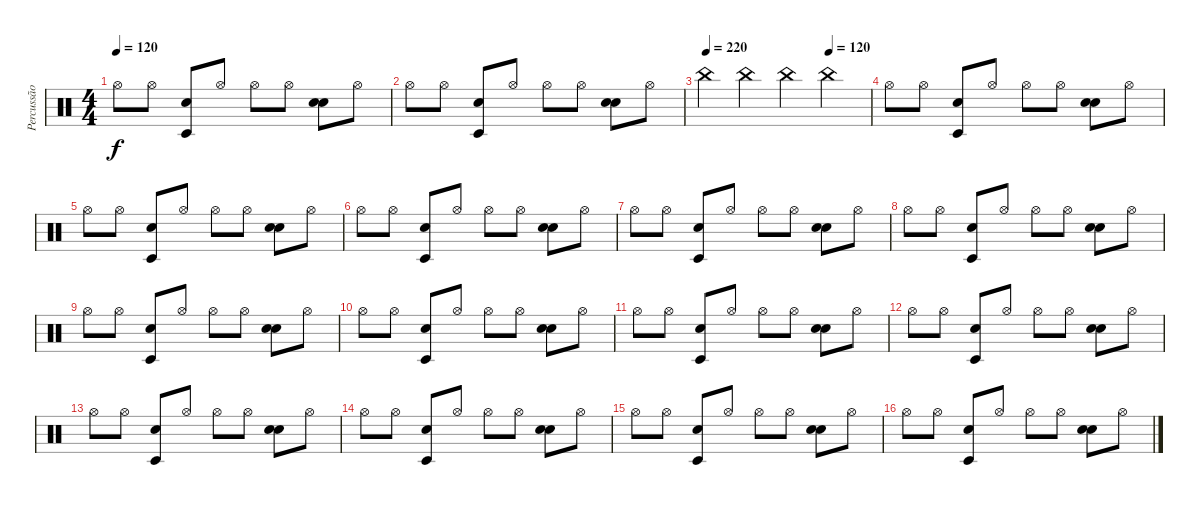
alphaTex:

\track ("Percussão" "Percussão") {instrument percussion}
\staff {score}
\articulation defaults
\ts (4 4)
\tempo 120
\clef neutral
\ks c "Hi-Hat (open)".8{dy f} "Hi-Hat (open)".8
("Timbale low (hit)" "Snare (hit) 2").8 "Hi-Hat (open)".8 "Hi-Hat (open)".8 "Hi-Hat (open)".8 ("Hand Clap (hit)" "Snare (hit) 2").8 "Hi-Hat (open)".8 |
"Hi-Hat (open)".8 "Hi-Hat (open)".8 ("Timbale low (hit)" "Snare (hit) 2").8 "Hi-Hat (open)".8 "Hi-Hat (open)".8 "Hi-Hat (open)".8 ("Hand Clap (hit)" "Snare (hit) 2").8 "Hi-Hat (open)".8 |
\tempo 220
\tempo (120 0.75)
"China (hit)".4 "China (hit)".4 "China (hit)".4 "China (hit)".4 |
"Hi-Hat (open)".8 "Hi-Hat (open)".8 ("Timbale low (hit)" "Snare (hit) 2").8 "Hi-Hat (open)".8 "Hi-Hat (open)".8 "Hi-Hat (open)".8 ("Hand Clap (hit)" "Snare (hit) 2").8 "Hi-Hat (open)".8 |
"Hi-Hat (open)".8 "Hi-Hat (open)".8 ("Timbale low (hit)" "Snare (hit) 2").8 "Hi-Hat (open)".8 "Hi-Hat (open)".8 "Hi-Hat (open)".8 ("Hand Clap (hit)" "Snare (hit) 2").8 "Hi-Hat (open)".8 |
"Hi-Hat (open)".8 "Hi-Hat (open)".8 ("Timbale low (hit)" "Snare (hit) 2").8 "Hi-Hat (open)".8 "Hi-Hat (open)".8 "Hi-Hat (open)".8 ("Hand Clap (hit)" "Snare (hit) 2").8 "Hi-Hat (open)".8 |
"Hi-Hat (open)".8 "Hi-Hat (open)".8 ("Timbale low (hit)" "Snare (hit) 2").8 "Hi-Hat (open)".8 "Hi-Hat (open)".8 "Hi-Hat (open)".8 ("Hand Clap (hit)" "Snare (hit) 2").8 "Hi-Hat (open)".8 |
"Hi-Hat (open)".8 "Hi-Hat (open)".8 ("Timbale low (hit)" "Snare (hit) 2").8 "Hi-Hat (open)".8 "Hi-Hat (open)".8 "Hi-Hat (open)".8 ("Hand Clap (hit)" "Snare (hit) 2").8 "Hi-Hat (open)".8 |
"Hi-Hat (open)".8 "Hi-Hat (open)".8 ("Timbale low (hit)" "Snare (hit) 2").8 "Hi-Hat (open)".8 "Hi-Hat (open)".8 "Hi-Hat (open)".8 ("Hand Clap (hit)" "Snare (hit) 2").8 "Hi-Hat (open)".8 |
"Hi-Hat (open)".8 "Hi-Hat (open)".8 ("Timbale low (hit)" "Snare (hit) 2").8 "Hi-Hat (open)".8 "Hi-Hat (open)".8 "Hi-Hat (open)".8 ("Hand Clap (hit)" "Snare (hit) 2").8 "Hi-Hat (open)".8 |
"Hi-Hat (open)".8 "Hi-Hat (open)".8 ("Timbale low (hit)" "Snare (hit) 2").8 "Hi-Hat (open)".8 "Hi-Hat (open)".8 "Hi-Hat (open)".8 ("Hand Clap (hit)" "Snare (hit) 2").8 "Hi-Hat (open)".8 |
"Hi-Hat (open)".8 "Hi-Hat (open)".8 ("Timbale low (hit)" "Snare (hit) 2").8 "Hi-Hat (open)".8 "Hi-Hat (open)".8 "Hi-Hat (open)".8 ("Hand Clap (hit)" "Snare (hit) 2").8 "Hi-Hat (open)".8 |
"Hi-Hat (open)".8 "Hi-Hat (open)".8 ("Timbale low (hit)" "Snare (hit) 2").8 "Hi-Hat (open)".8 "Hi-Hat (open)".8 "Hi-Hat (open)".8 ("Hand Clap (hit)" "Snare (hit) 2").8 "Hi-Hat (open)".8 |
"Hi-Hat (open)".8 "Hi-Hat (open)".8 ("Timbale low (hit)" "Snare (hit) 2").8 "Hi-Hat (open)".8 "Hi-Hat (open)".8 "Hi-Hat (open)".8 ("Hand Clap (hit)" "Snare (hit) 2").8 "Hi-Hat (open)".8 |
"Hi-Hat (open)".8 "Hi-Hat (open)".8 ("Timbale low (hit)" "Snare (hit) 2").8 "Hi-Hat (open)".8 "Hi-Hat (open)".8 "Hi-Hat (open)".8 ("Hand Clap (hit)" "Snare (hit) 2").8 "Hi-Hat (open)".8 |
"Hi-Hat (open)".8 "Hi-Hat (open)".8 ("Timbale low (hit)" "Snare (hit) 2").8 "Hi-Hat (open)".8 "Hi-Hat (open)".8 "Hi-Hat (open)".8 ("Hand Clap (hit)" "Snare (hit) 2").8 "Hi-Hat (open)".8
